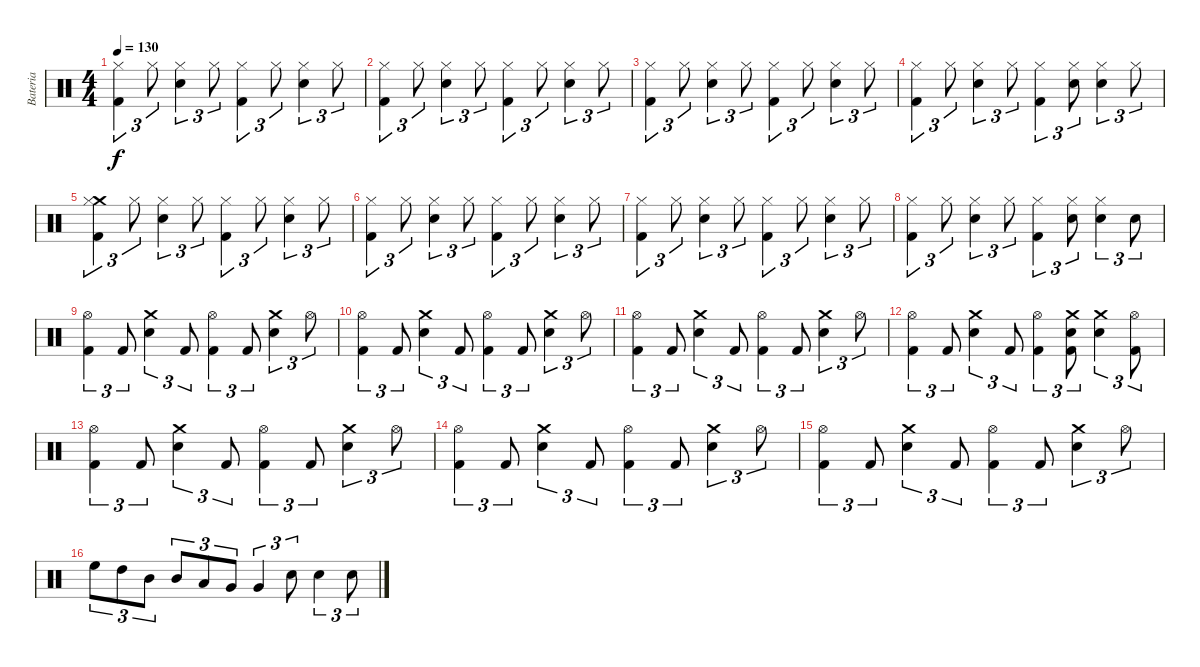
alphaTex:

\track ("Bateria" "Bateria") {instrument percussion}
\staff {score}
\articulation defaults
\ts (4 4)
\tempo 130
\clef neutral
\ks c
("Hi-Hat (closed)" "Kick (hit) 2").4{tu (3 2) dy f} "Hi-Hat (closed)".8{tu (3 2)} ("Hi-Hat (closed)" "Snare (hit) 2").4{tu (3 2)} "Hi-Hat (closed)".8{tu (3 2)} ("Hi-Hat (closed)" "Kick (hit) 2").4{tu (3 2)} "Hi-Hat (closed)".8{tu (3 2)} ("Hi-Hat (closed)" "Snare (hit) 2").4{tu (3 2)} "Hi-Hat (closed)".8{tu (3 2)} |
("Hi-Hat (closed)" "Kick (hit) 2").4{tu (3 2)} "Hi-Hat (closed)".8{tu (3 2)} ("Hi-Hat (closed)" "Snare (hit) 2").4{tu (3 2)} "Hi-Hat (closed)".8{tu (3 2)} ("Hi-Hat (closed)" "Kick (hit) 2").4{tu (3 2)} "Hi-Hat (closed)".8{tu (3 2)} ("Hi-Hat (closed)" "Snare (hit) 2").4{tu (3 2)} "Hi-Hat (closed)".8{tu (3 2)} |
("Hi-Hat (closed)" "Kick (hit) 2").4{tu (3 2)} "Hi-Hat (closed)".8{tu (3 2)} ("Hi-Hat (closed)" "Snare (hit) 2").4{tu (3 2)} "Hi-Hat (closed)".8{tu (3 2)} ("Hi-Hat (closed)" "Kick (hit) 2").4{tu (3 2)} "Hi-Hat (closed)".8{tu (3 2)} ("Hi-Hat (closed)" "Snare (hit) 2").4{tu (3 2)} "Hi-Hat (closed)".8{tu (3 2)} |
("Hi-Hat (closed)" "Kick (hit) 2").4{tu (3 2)} "Hi-Hat (closed)".8{tu (3 2)} ("Hi-Hat (closed)" "Snare (hit) 2").4{tu (3 2)} "Hi-Hat (closed)".8{tu (3 2)} ("Hi-Hat (closed)" "Kick (hit) 2").4{tu (3 2)} ("Hi-Hat (closed)" "Snare (hit) 2").8{tu (3 2)} ("Hi-Hat (closed)" "Snare (hit) 2").4{tu (3 2)} "Hi-Hat (closed)".8{tu (3 2)} |
("Crash medium (hit)" "Hi-Hat (closed)" "Kick (hit) 2").4{tu (3 2)} "Hi-Hat (closed)".8{tu (3 2)} ("Hi-Hat (closed)" "Snare (hit) 2").4{tu (3 2)} "Hi-Hat (closed)".8{tu (3 2)} ("Hi-Hat (closed)" "Kick (hit) 2").4{tu (3 2)} "Hi-Hat (closed)".8{tu (3 2)} ("Hi-Hat (closed)" "Snare (hit) 2").4{tu (3 2)} "Hi-Hat (closed)".8{tu (3 2)} |
("Hi-Hat (closed)" "Kick (hit) 2").4{tu (3 2)} "Hi-Hat (closed)".8{tu (3 2)} ("Hi-Hat (closed)" "Snare (hit) 2").4{tu (3 2)} "Hi-Hat (closed)".8{tu (3 2)} ("Hi-Hat (closed)" "Kick (hit) 2").4{tu (3 2)} "Hi-Hat (closed)".8{tu (3 2)} ("Hi-Hat (closed)" "Snare (hit) 2").4{tu (3 2)} "Hi-Hat (closed)".8{tu (3 2)} |
("Hi-Hat (closed)" "Kick (hit) 2").4{tu (3 2)} "Hi-Hat (closed)".8{tu (3 2)} ("Hi-Hat (closed)" "Snare (hit) 2").4{tu (3 2)} "Hi-Hat (closed)".8{tu (3 2)} ("Hi-Hat (closed)" "Kick (hit) 2").4{tu (3 2)} "Hi-Hat (closed)".8{tu (3 2)} ("Hi-Hat (closed)" "Snare (hit) 2").4{tu (3 2)} "Hi-Hat (closed)".8{tu (3 2)} |
("Hi-Hat (closed)" "Kick (hit) 2").4{tu (3 2)} "Hi-Hat (closed)".8{tu (3 2)} ("Hi-Hat (closed)" "Snare (hit) 2").4{tu (3 2)} "Hi-Hat (closed)".8{tu (3 2)} ("Hi-Hat (closed)" "Kick (hit) 2").4{tu (3 2)} ("Hi-Hat (closed)" "Snare (hit) 2").8{tu (3 2)} ("Hi-Hat (closed)" "Snare (hit) 2").4{tu (3 2)} "Snare (hit) 2".8{tu (3 2)} |
("Hi-Hat (open)" "Kick (hit) 2").4{tu (3 2)} "Kick (hit) 2".8{tu (3 2)} ("Crash medium (hit)" "Snare (hit) 2").4{tu (3 2)} "Kick (hit) 2".8{tu (3 2)} ("Hi-Hat (open)" "Kick (hit) 2").4{tu (3 2)} "Kick (hit) 2".8{tu (3 2)} ("Crash medium (hit)" "Snare (hit) 2").4{tu (3 2)} "Hi-Hat (open)".8{tu (3 2)} |
("Hi-Hat (open)" "Kick (hit) 2").4{tu (3 2)} "Kick (hit) 2".8{tu (3 2)} ("Crash medium (hit)" "Snare (hit) 2").4{tu (3 2)} "Kick (hit) 2".8{tu (3 2)} ("Hi-Hat (open)" "Kick (hit) 2").4{tu (3 2)} "Kick (hit) 2".8{tu (3 2)} ("Crash medium (hit)" "Snare (hit) 2").4{tu (3 2)} "Hi-Hat (open)".8{tu (3 2)} |
("Hi-Hat (open)" "Kick (hit) 2").4{tu (3 2)} "Kick (hit) 2".8{tu (3 2)} ("Crash medium (hit)" "Snare (hit) 2").4{tu (3 2)} "Kick (hit) 2".8{tu (3 2)} ("Hi-Hat (open)" "Kick (hit) 2").4{tu (3 2)} "Kick (hit) 2".8{tu (3 2)} ("Crash medium (hit)" "Snare (hit) 2").4{tu (3 2)} "Hi-Hat (open)".8{tu (3 2)} |
("Hi-Hat (open)" "Kick (hit) 2").4{tu (3 2)} "Kick (hit) 2".8{tu (3 2)} ("Crash medium (hit)" "Snare (hit) 2").4{tu (3 2)} "Kick (hit) 2".8{tu (3 2)} ("Hi-Hat (open)" "Kick (hit) 2").4{tu (3 2)} ("Snare (hit) 2" "Crash medium (hit)" "Kick (hit) 2").8{tu (3 2)} ("Crash medium (hit)" "Snare (hit) 2").4{tu (3 2)} ("Hi-Hat (open)" "Kick (hit) 2").8{tu (3 2)} |
("Hi-Hat (open)" "Kick (hit) 2").4{tu (3 2)} "Kick (hit) 2".8{tu (3 2)} ("Crash medium (hit)" "Snare (hit) 2").4{tu (3 2)} "Kick (hit) 2".8{tu (3 2)} ("Hi-Hat (open)" "Kick (hit) 2").4{tu (3 2)} "Kick (hit) 2".8{tu (3 2)} ("Crash medium (hit)" "Snare (hit) 2").4{tu (3 2)} "Hi-Hat (open)".8{tu (3 2)} |
("Hi-Hat (open)" "Kick (hit) 2").4{tu (3 2)} "Kick (hit) 2".8{tu (3 2)} ("Crash medium (hit)" "Snare (hit) 2").4{tu (3 2)} "Kick (hit) 2".8{tu (3 2)} ("Hi-Hat (open)" "Kick (hit) 2").4{tu (3 2)} "Kick (hit) 2".8{tu (3 2)} ("Crash medium (hit)" "Snare (hit) 2").4{tu (3 2)} "Hi-Hat (open)".8{tu (3 2)} |
("Hi-Hat (open)" "Kick (hit) 2").4{tu (3 2)} "Kick (hit) 2".8{tu (3 2)} ("Crash medium (hit)" "Snare (hit) 2").4{tu (3 2)} "Kick (hit) 2".8{tu (3 2)} ("Hi-Hat (open)" "Kick (hit) 2").4{tu (3 2)} "Kick (hit) 2".8{tu (3 2)} ("Crash medium (hit)" "Snare (hit) 2").4{tu (3 2)} "Hi-Hat (open)".8{tu (3 2)} |
"High Floor Tom (hit)".8{tu (3 2)} "High Tom (hit)".8{tu (3 2)} "Mid Tom (hit)".8{tu (3 2)} "Mid Tom (hit)".8{tu (3 2)} "Low Tom (hit)".8{tu (3 2)} "Very Low Tom (hit)".8{tu (3 2)} "Very Low Tom (hit)".4{tu (3 2)} "Snare (hit) 2".8{tu (3 2)} "Snare (hit) 2".4{tu (3 2)} "Snare (hit) 2".8{tu (3 2)}
